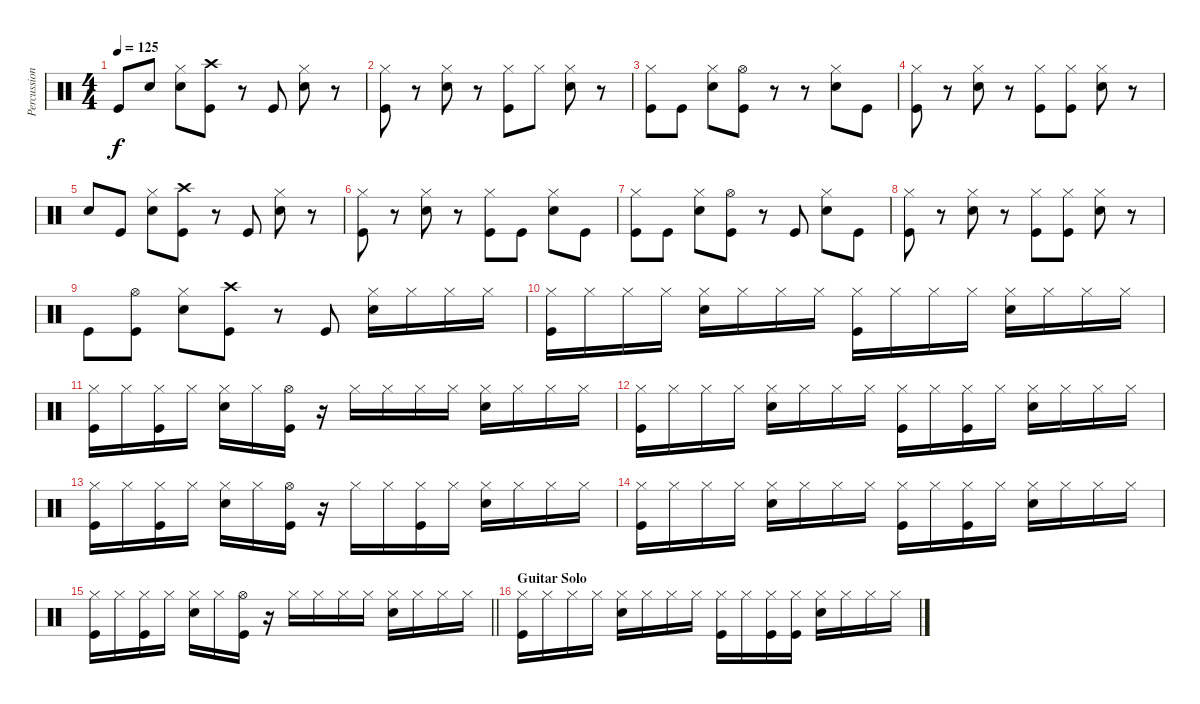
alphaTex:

\track ("Percussion" "Percussion") {instrument percussion bank 177}
\staff {score}
\articulation defaults
\ts (4 4)
\tempo 125
\clef neutral
\ks c "Kick (hit)".8{dy f} "Snare (hit) 2".8
("Hi-Hat (closed)" "Snare (hit) 2").8 ("Crash high (hit)" "Kick (hit)").8 r.8 "Kick (hit)".8 ("Hi-Hat (closed)" "Snare (hit) 2").8 r.8 |
("Hi-Hat (closed)" "Kick (hit)").8 r.8 ("Hi-Hat (closed)" "Snare (hit) 2").8 r.8 ("Hi-Hat (closed)" "Kick (hit)").8 "Hi-Hat (closed)".8 ("Hi-Hat (closed)" "Snare (hit) 2").8 r.8 |
("Hi-Hat (closed)" "Kick (hit)").8 "Kick (hit)".8 ("Hi-Hat (closed)" "Snare (hit) 2").8 ("Hi-Hat (open)" "Kick (hit)").8 r.8 r.8 ("Hi-Hat (closed)" "Snare (hit) 2").8 "Kick (hit)".8 |
("Hi-Hat (closed)" "Kick (hit)").8 r.8 ("Hi-Hat (closed)" "Snare (hit) 2").8 r.8 ("Hi-Hat (closed)" "Kick (hit)").8 ("Hi-Hat (closed)" "Kick (hit)").8 ("Hi-Hat (closed)" "Snare (hit) 2").8 r.8 |
"Snare (hit) 2".8 "Kick (hit)".8 ("Hi-Hat (closed)" "Snare (hit) 2").8 ("Crash high (hit)" "Kick (hit)").8 r.8 "Kick (hit)".8 ("Hi-Hat (closed)" "Snare (hit) 2").8 r.8 |
("Hi-Hat (closed)" "Kick (hit)").8 r.8 ("Hi-Hat (closed)" "Snare (hit) 2").8 r.8 ("Hi-Hat (closed)" "Kick (hit)").8 "Kick (hit)".8 ("Hi-Hat (closed)" "Snare (hit) 2").8 "Kick (hit)".8 |
("Hi-Hat (closed)" "Kick (hit)").8 "Kick (hit)".8 ("Hi-Hat (closed)" "Snare (hit) 2").8 ("Hi-Hat (open)" "Kick (hit)").8 r.8 "Kick (hit)".8 ("Hi-Hat (closed)" "Snare (hit) 2").8 "Kick (hit)".8 |
("Hi-Hat (closed)" "Kick (hit)").8 r.8 ("Hi-Hat (closed)" "Snare (hit) 2").8 r.8 ("Hi-Hat (closed)" "Kick (hit)").8 ("Hi-Hat (closed)" "Kick (hit)").8 ("Hi-Hat (closed)" "Snare (hit) 2").8 r.8 |
"Kick (hit)".8 ("Hi-Hat (open)" "Kick (hit)").8 ("Hi-Hat (closed)" "Snare (hit) 2").8 ("Crash high (hit)" "Kick (hit)").8 r.8 "Kick (hit)".8 ("Hi-Hat (closed)" "Snare (hit) 2").16 "Hi-Hat (closed)".16 "Hi-Hat (closed)".16 "Hi-Hat (closed)".16 |
("Hi-Hat (closed)" "Kick (hit)").16 "Hi-Hat (closed)".16 "Hi-Hat (closed)".16 "Hi-Hat (closed)".16 ("Hi-Hat (closed)" "Snare (hit) 2").16 "Hi-Hat (closed)".16 "Hi-Hat (closed)".16 "Hi-Hat (closed)".16 ("Hi-Hat (closed)" "Kick (hit)").16 "Hi-Hat (closed)".16 "Hi-Hat (closed)".16 "Hi-Hat (closed)".16 ("Hi-Hat (closed)" "Snare (hit) 2").16 "Hi-Hat (closed)".16 "Hi-Hat (closed)".16 "Hi-Hat (closed)".16 |
("Hi-Hat (closed)" "Kick (hit)").16 "Hi-Hat (closed)".16 ("Hi-Hat (closed)" "Kick (hit)").16 "Hi-Hat (closed)".16 ("Hi-Hat (closed)" "Snare (hit) 2").16 "Hi-Hat (closed)".16 ("Hi-Hat (open)" "Kick (hit)").16 r.16 "Hi-Hat (closed)".16 "Hi-Hat (closed)".16 "Hi-Hat (closed)".16 "Hi-Hat (closed)".16 ("Hi-Hat (closed)" "Snare (hit) 2").16 "Hi-Hat (closed)".16 "Hi-Hat (closed)".16 "Hi-Hat (closed)".16 |
("Hi-Hat (closed)" "Kick (hit)").16 "Hi-Hat (closed)".16 "Hi-Hat (closed)".16 "Hi-Hat (closed)".16 ("Hi-Hat (closed)" "Snare (hit) 2").16 "Hi-Hat (closed)".16 "Hi-Hat (closed)".16 "Hi-Hat (closed)".16 ("Hi-Hat (closed)" "Kick (hit)").16 "Hi-Hat (closed)".16 ("Hi-Hat (closed)" "Kick (hit)").16 "Hi-Hat (closed)".16 ("Hi-Hat (closed)" "Snare (hit) 2").16 "Hi-Hat (closed)".16 "Hi-Hat (closed)".16 "Hi-Hat (closed)".16 |
("Hi-Hat (closed)" "Kick (hit)").16 "Hi-Hat (closed)".16 ("Hi-Hat (closed)" "Kick (hit)").16 "Hi-Hat (closed)".16 ("Hi-Hat (closed)" "Snare (hit) 2").16 "Hi-Hat (closed)".16 ("Hi-Hat (open)" "Kick (hit)").16 r.16 "Hi-Hat (closed)".16 "Hi-Hat (closed)".16 ("Hi-Hat (closed)" "Kick (hit)").16 "Hi-Hat (closed)".16 ("Hi-Hat (closed)" "Snare (hit) 2").16 "Hi-Hat (closed)".16 "Hi-Hat (closed)".16 "Hi-Hat (closed)".16 |
("Hi-Hat (closed)" "Kick (hit)").16 "Hi-Hat (closed)".16 "Hi-Hat (closed)".16 "Hi-Hat (closed)".16 ("Hi-Hat (closed)" "Snare (hit) 2").16 "Hi-Hat (closed)".16 "Hi-Hat (closed)".16 "Hi-Hat (closed)".16 ("Hi-Hat (closed)" "Kick (hit)").16 "Hi-Hat (closed)".16 ("Hi-Hat (closed)" "Kick (hit)").16 "Hi-Hat (closed)".16 ("Hi-Hat (closed)" "Snare (hit) 2").16 "Hi-Hat (closed)".16 "Hi-Hat (closed)".16 "Hi-Hat (closed)".16 |
\barLineRight lightlight
("Hi-Hat (closed)" "Kick (hit)").16 "Hi-Hat (closed)".16 ("Hi-Hat (closed)" "Kick (hit)").16 "Hi-Hat (closed)".16 ("Hi-Hat (closed)" "Snare (hit) 2").16 "Hi-Hat (closed)".16 ("Hi-Hat (open)" "Kick (hit)").16 r.16 "Hi-Hat (closed)".16 "Hi-Hat (closed)".16 "Hi-Hat (closed)".16 "Hi-Hat (closed)".16 ("Hi-Hat (closed)" "Snare (hit) 2").16 "Hi-Hat (closed)".16 "Hi-Hat (closed)".16 "Hi-Hat (closed)".16 |
\section ("" "Guitar Solo")
("Hi-Hat (closed)" "Kick (hit)").16 "Hi-Hat (closed)".16 "Hi-Hat (closed)".16 "Hi-Hat (closed)".16 ("Hi-Hat (closed)" "Snare (hit) 2").16 "Hi-Hat (closed)".16 "Hi-Hat (closed)".16 "Hi-Hat (closed)".16 ("Hi-Hat (closed)" "Kick (hit)").16 "Hi-Hat (closed)".16 ("Hi-Hat (closed)" "Kick (hit)").16 ("Hi-Hat (closed)" "Kick (hit)").16 ("Hi-Hat (closed)" "Snare (hit) 2").16 "Hi-Hat (closed)".16 "Hi-Hat (closed)".16 "Hi-Hat (closed)".16
